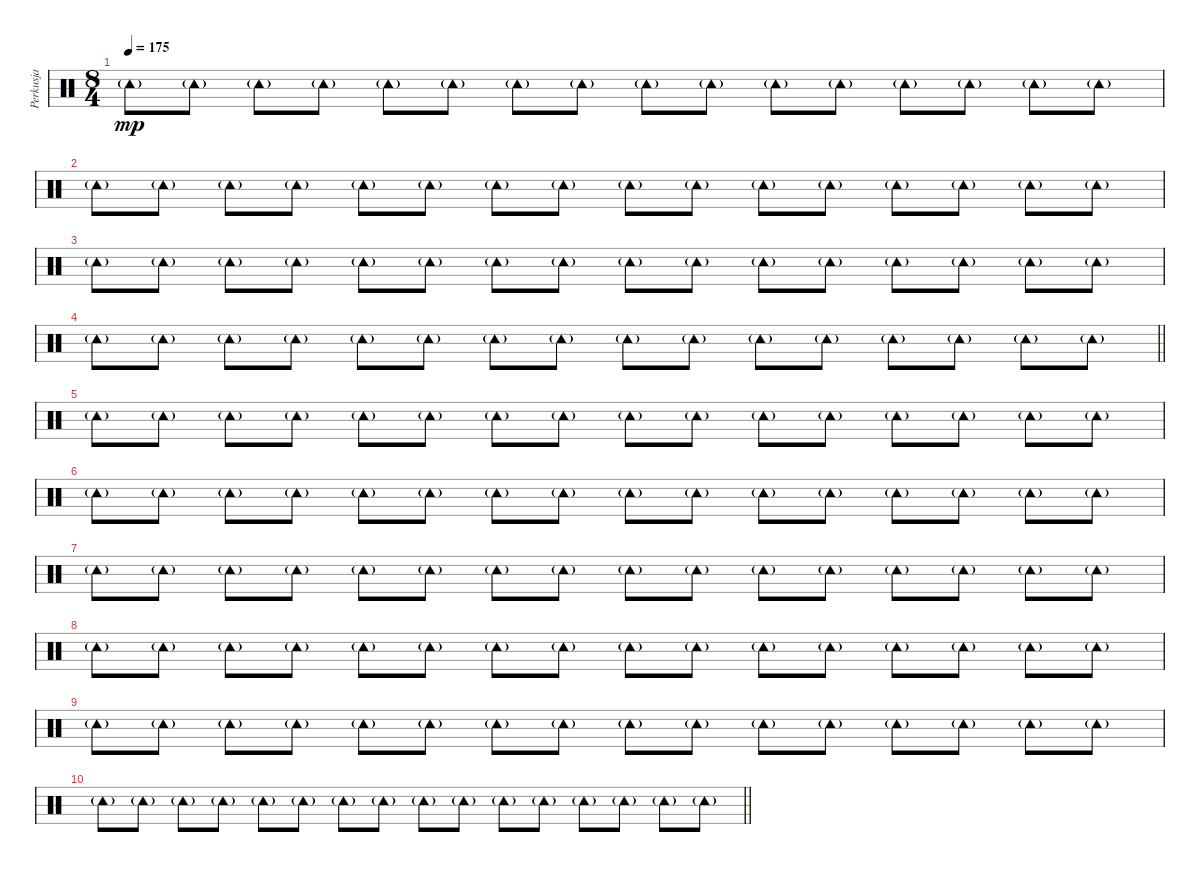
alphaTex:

\track ("Perkusja" "Perkusja") {instrument percussion}
\staff {score}
\articulation defaults
\ts (8 4)
\tempo 175
\clef neutral
\ks c "Tambourine (hit)"{g}.8{dy mp} "Tambourine (hit)"{g}.8 "Tambourine (hit)"{g}.8 "Tambourine (hit)"{g}.8 "Tambourine (hit)"{g}.8 "Tambourine (hit)"{g}.8 "Tambourine (hit)"{g}.8 "Tambourine (hit)"{g}.8 "Tambourine (hit)"{g}.8 "Tambourine (hit)"{g}.8 "Tambourine (hit)"{g}.8 "Tambourine (hit)"{g}.8 "Tambourine (hit)"{g}.8 "Tambourine (hit)"{g}.8 "Tambourine (hit)"{g}.8 "Tambourine (hit)"{g}.8
|
"Tambourine (hit)"{g}.8 "Tambourine (hit)"{g}.8 "Tambourine (hit)"{g}.8 "Tambourine (hit)"{g}.8 "Tambourine (hit)"{g}.8 "Tambourine (hit)"{g}.8 "Tambourine (hit)"{g}.8 "Tambourine (hit)"{g}.8 "Tambourine (hit)"{g}.8 "Tambourine (hit)"{g}.8 "Tambourine (hit)"{g}.8 "Tambourine (hit)"{g}.8 "Tambourine (hit)"{g}.8 "Tambourine (hit)"{g}.8 "Tambourine (hit)"{g}.8 "Tambourine (hit)"{g}.8 |
"Tambourine (hit)"{g}.8 "Tambourine (hit)"{g}.8 "Tambourine (hit)"{g}.8 "Tambourine (hit)"{g}.8 "Tambourine (hit)"{g}.8 "Tambourine (hit)"{g}.8 "Tambourine (hit)"{g}.8 "Tambourine (hit)"{g}.8 "Tambourine (hit)"{g}.8 "Tambourine (hit)"{g}.8 "Tambourine (hit)"{g}.8 "Tambourine (hit)"{g}.8 "Tambourine (hit)"{g}.8 "Tambourine (hit)"{g}.8 "Tambourine (hit)"{g}.8 "Tambourine (hit)"{g}.8 |
\barLineRight lightlight "Tambourine (hit)"{g}.8 "Tambourine (hit)"{g}.8 "Tambourine (hit)"{g}.8 "Tambourine (hit)"{g}.8 "Tambourine (hit)"{g}.8 "Tambourine (hit)"{g}.8 "Tambourine (hit)"{g}.8 "Tambourine (hit)"{g}.8 "Tambourine (hit)"{g}.8 "Tambourine (hit)"{g}.8 "Tambourine (hit)"{g}.8 "Tambourine (hit)"{g}.8 "Tambourine (hit)"{g}.8 "Tambourine (hit)"{g}.8 "Tambourine (hit)"{g}.8 "Tambourine (hit)"{g}.8
|
"Tambourine (hit)"{g}.8 "Tambourine (hit)"{g}.8 "Tambourine (hit)"{g}.8 "Tambourine (hit)"{g}.8 "Tambourine (hit)"{g}.8 "Tambourine (hit)"{g}.8 "Tambourine (hit)"{g}.8 "Tambourine (hit)"{g}.8 "Tambourine (hit)"{g}.8 "Tambourine (hit)"{g}.8 "Tambourine (hit)"{g}.8 "Tambourine (hit)"{g}.8 "Tambourine (hit)"{g}.8 "Tambourine (hit)"{g}.8 "Tambourine (hit)"{g}.8 "Tambourine (hit)"{g}.8 |
"Tambourine (hit)"{g}.8 "Tambourine (hit)"{g}.8 "Tambourine (hit)"{g}.8 "Tambourine (hit)"{g}.8 "Tambourine (hit)"{g}.8 "Tambourine (hit)"{g}.8 "Tambourine (hit)"{g}.8 "Tambourine (hit)"{g}.8 "Tambourine (hit)"{g}.8 "Tambourine (hit)"{g}.8 "Tambourine (hit)"{g}.8 "Tambourine (hit)"{g}.8 "Tambourine (hit)"{g}.8 "Tambourine (hit)"{g}.8 "Tambourine (hit)"{g}.8 "Tambourine (hit)"{g}.8 |
"Tambourine (hit)"{g}.8 "Tambourine (hit)"{g}.8 "Tambourine (hit)"{g}.8 "Tambourine (hit)"{g}.8 "Tambourine (hit)"{g}.8 "Tambourine (hit)"{g}.8 "Tambourine (hit)"{g}.8 "Tambourine (hit)"{g}.8 "Tambourine (hit)"{g}.8 "Tambourine (hit)"{g}.8 "Tambourine (hit)"{g}.8 "Tambourine (hit)"{g}.8 "Tambourine (hit)"{g}.8 "Tambourine (hit)"{g}.8 "Tambourine (hit)"{g}.8 "Tambourine (hit)"{g}.8 |
"Tambourine (hit)"{g}.8 "Tambourine (hit)"{g}.8 "Tambourine (hit)"{g}.8 "Tambourine (hit)"{g}.8 "Tambourine (hit)"{g}.8 "Tambourine (hit)"{g}.8 "Tambourine (hit)"{g}.8 "Tambourine (hit)"{g}.8 "Tambourine (hit)"{g}.8 "Tambourine (hit)"{g}.8 "Tambourine (hit)"{g}.8 "Tambourine (hit)"{g}.8 "Tambourine (hit)"{g}.8 "Tambourine (hit)"{g}.8 "Tambourine (hit)"{g}.8 "Tambourine (hit)"{g}.8 |
"Tambourine (hit)"{g}.8 "Tambourine (hit)"{g}.8 "Tambourine (hit)"{g}.8 "Tambourine (hit)"{g}.8 "Tambourine (hit)"{g}.8 "Tambourine (hit)"{g}.8 "Tambourine (hit)"{g}.8 "Tambourine (hit)"{g}.8 "Tambourine (hit)"{g}.8 "Tambourine (hit)"{g}.8 "Tambourine (hit)"{g}.8 "Tambourine (hit)"{g}.8 "Tambourine (hit)"{g}.8 "Tambourine (hit)"{g}.8 "Tambourine (hit)"{g}.8 "Tambourine (hit)"{g}.8 |
\barLineRight lightlight "Tambourine (hit)"{g}.8 "Tambourine (hit)"{g}.8 "Tambourine (hit)"{g}.8 "Tambourine (hit)"{g}.8 "Tambourine (hit)"{g}.8 "Tambourine (hit)"{g}.8 "Tambourine (hit)"{g}.8 "Tambourine (hit)"{g}.8 "Tambourine (hit)"{g}.8 "Tambourine (hit)"{g}.8 "Tambourine (hit)"{g}.8 "Tambourine (hit)"{g}.8 "Tambourine (hit)"{g}.8 "Tambourine (hit)"{g}.8 "Tambourine (hit)"{g}.8 "Tambourine (hit)"{g}.8
